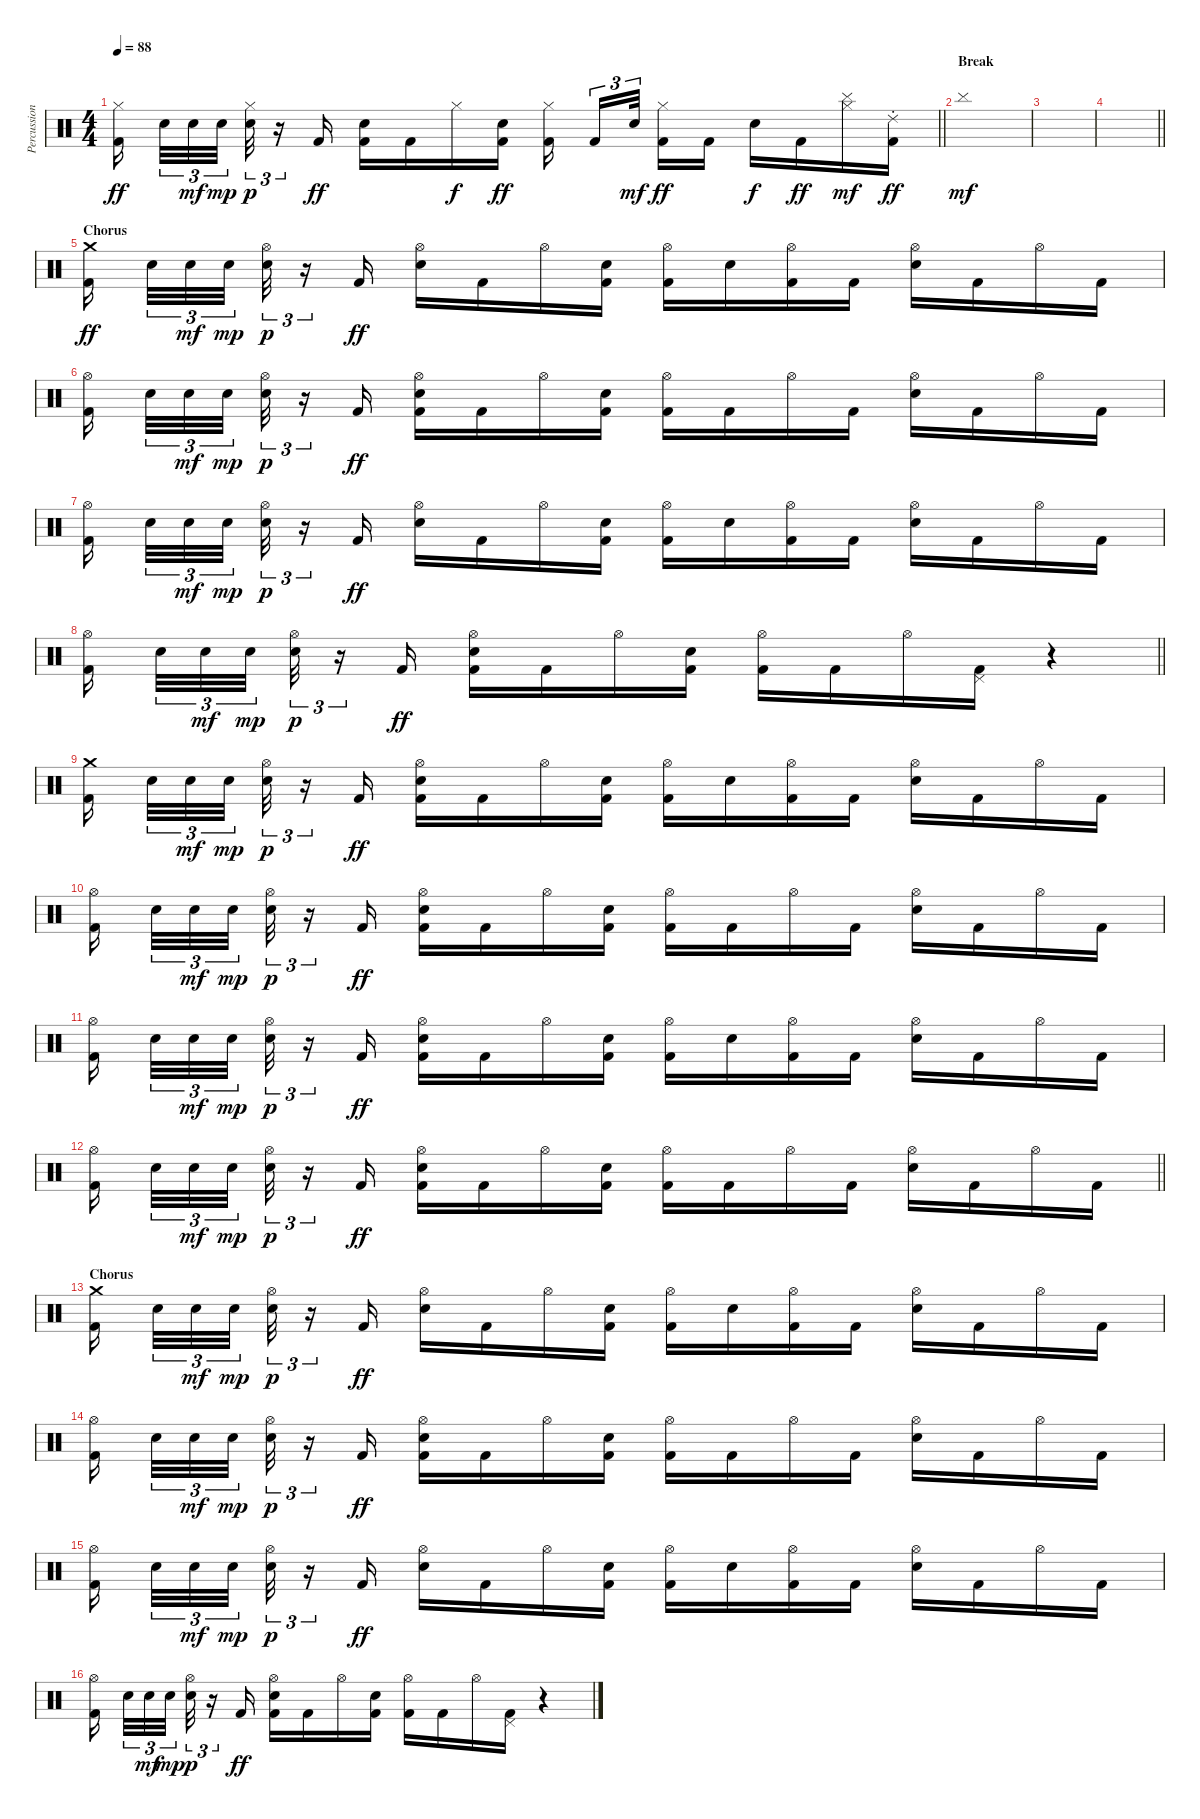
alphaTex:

\track ("Percussion" "Percussion") {instrument percussion}
\staff {score}
\articulation defaults
\ts (4 4)
\tempo 88
\clef neutral
\barLineRight lightlight
\ks c
("Hi-Hat (closed)" "Kick (hit) 2").16{dy ff beam splitsecondary} "Snare (hit) 2".32{tu (3 2)} "Snare (hit) 2".32{tu (3 2) dy mf} "Snare (hit) 2".32{tu (3 2) dy mp beam splitsecondary} ("Hi-Hat (closed)" "Snare (hit) 2").32{tu (3 2) dy p} r.16{tu (3 2)} "Kick (hit) 2".16{dy ff} ("Electric Snare (hit)" "Kick (hit) 2").16 "Kick (hit) 2".16 "Hi-Hat (closed)".16{dy f} ("Snare (hit) 2" "Kick (hit) 2").16{dy ff} ("Hi-Hat (closed)" "Kick (hit) 2").16{beam splitsecondary} "Kick (hit) 2".16{tu (3 2)} "Snare (hit) 2".32{tu (3 2) dy mf beam splitsecondary} ("Hi-Hat (closed)" "Kick (hit) 2").16{dy ff} "Kick (hit) 2".16 "Snare (hit) 2".16{dy f} "Kick (hit) 2".16{dy ff} ("Cymbal (hit)" "Hi-Hat (closed)").16{dy mf} ("Ride (choke) 2" "Kick (hit) 2").16{dy ff} |
\section ("" "Break")
"Cymbal (hit)".1{dy mf} |
|
\barLineRight lightlight
|
\section ("" "Chorus")
("Crash medium (hit)" "Kick (hit) 2").16{dy ff beam splitsecondary} "Snare (hit) 2".32{tu (3 2)} "Snare (hit) 2".32{tu (3 2) dy mf} "Snare (hit) 2".32{tu (3 2) dy mp beam splitsecondary} ("Hi-Hat (open)" "Snare (hit) 2").32{tu (3 2) dy p} r.16{tu (3 2)} "Kick (hit) 2".16{dy ff} ("Hi-Hat (open)" "Snare (hit) 2").16 "Kick (hit) 2".16 "Hi-Hat (open)".16 ("Electric Snare (hit)" "Kick (hit) 2").16 ("Hi-Hat (open)" "Kick (hit) 2").16 "Snare (hit) 2".16 ("Hi-Hat (open)" "Kick (hit) 2").16 "Kick (hit) 2".16 ("Hi-Hat (open)" "Electric Snare (hit)").16 "Kick (hit) 2".16 "Hi-Hat (open)".16 "Kick (hit) 2".16 |
("Hi-Hat (open)" "Kick (hit) 2").16{beam splitsecondary} "Snare (hit) 2".32{tu (3 2)} "Snare (hit) 2".32{tu (3 2) dy mf} "Snare (hit) 2".32{tu (3 2) dy mp beam splitsecondary} ("Hi-Hat (open)" "Snare (hit) 2").32{tu (3 2) dy p} r.16{tu (3 2)} "Kick (hit) 2".16{dy ff} ("Hi-Hat (open)" "Electric Snare (hit)" "Kick (hit) 2").16 "Kick (hit) 2".16 "Hi-Hat (open)".16 ("Snare (hit) 2" "Kick (hit) 2").16 ("Hi-Hat (open)" "Kick (hit) 2").16 "Kick (hit) 2".16 "Hi-Hat (open)".16 "Kick (hit) 2".16 ("Hi-Hat (open)" "Electric Snare (hit)").16 "Kick (hit) 2".16 "Hi-Hat (open)".16 "Kick (hit) 2".16 |
("Hi-Hat (open)" "Kick (hit) 2").16{beam splitsecondary} "Snare (hit) 2".32{tu (3 2)} "Snare (hit) 2".32{tu (3 2) dy mf} "Snare (hit) 2".32{tu (3 2) dy mp beam splitsecondary} ("Hi-Hat (open)" "Snare (hit) 2").32{tu (3 2) dy p} r.16{tu (3 2)} "Kick (hit) 2".16{dy ff} ("Hi-Hat (open)" "Snare (hit) 2").16 "Kick (hit) 2".16 "Hi-Hat (open)".16 ("Electric Snare (hit)" "Kick (hit) 2").16 ("Hi-Hat (open)" "Kick (hit) 2").16 "Snare (hit) 2".16 ("Hi-Hat (open)" "Kick (hit) 2").16 "Kick (hit) 2".16 ("Hi-Hat (open)" "Electric Snare (hit)").16 "Kick (hit) 2".16 "Hi-Hat (open)".16 "Kick (hit) 2".16 |
\barLineRight lightlight
("Hi-Hat (open)" "Kick (hit) 2").16{beam splitsecondary} "Snare (hit) 2".32{tu (3 2)} "Snare (hit) 2".32{tu (3 2) dy mf} "Snare (hit) 2".32{tu (3 2) dy mp beam splitsecondary} ("Hi-Hat (open)" "Snare (hit) 2").32{tu (3 2) dy p} r.16{tu (3 2)} "Kick (hit) 2".16{dy ff} ("Hi-Hat (open)" "Electric Snare (hit)" "Kick (hit) 2").16 "Kick (hit) 2".16 "Hi-Hat (open)".16 ("Snare (hit) 2" "Kick (hit) 2").16 ("Hi-Hat (open)" "Kick (hit) 2").16 "Kick (hit) 2".16 "Hi-Hat (open)".16 ("Pedal Hi-Hat (hit)" "Kick (hit) 2").16 r.4 |
("Crash medium (hit)" "Kick (hit) 2").16{beam splitsecondary} "Snare (hit) 2".32{tu (3 2)} "Snare (hit) 2".32{tu (3 2) dy mf} "Snare (hit) 2".32{tu (3 2) dy mp beam splitsecondary} ("Hi-Hat (open)" "Snare (hit) 2").32{tu (3 2) dy p} r.16{tu (3 2)} "Kick (hit) 2".16{dy ff} ("Hi-Hat (open)" "Snare (hit) 2" "Kick (hit) 2").16 "Kick (hit) 2".16 "Hi-Hat (open)".16 ("Electric Snare (hit)" "Kick (hit) 2").16 ("Hi-Hat (open)" "Kick (hit) 2").16 "Snare (hit) 2".16 ("Hi-Hat (open)" "Kick (hit) 2").16 "Kick (hit) 2".16 ("Hi-Hat (open)" "Electric Snare (hit)").16 "Kick (hit) 2".16 "Hi-Hat (open)".16 "Kick (hit) 2".16 |
("Hi-Hat (open)" "Kick (hit) 2").16{beam splitsecondary} "Snare (hit) 2".32{tu (3 2)} "Snare (hit) 2".32{tu (3 2) dy mf} "Snare (hit) 2".32{tu (3 2) dy mp beam splitsecondary} ("Hi-Hat (open)" "Snare (hit) 2").32{tu (3 2) dy p} r.16{tu (3 2)} "Kick (hit) 2".16{dy ff} ("Hi-Hat (open)" "Electric Snare (hit)" "Kick (hit) 2").16 "Kick (hit) 2".16 "Hi-Hat (open)".16 ("Snare (hit) 2" "Kick (hit) 2").16 ("Hi-Hat (open)" "Kick (hit) 2").16 "Kick (hit) 2".16 "Hi-Hat (open)".16 "Kick (hit) 2".16 ("Hi-Hat (open)" "Electric Snare (hit)").16 "Kick (hit) 2".16 "Hi-Hat (open)".16 "Kick (hit) 2".16 |
("Hi-Hat (open)" "Kick (hit) 2").16{beam splitsecondary} "Snare (hit) 2".32{tu (3 2)} "Snare (hit) 2".32{tu (3 2) dy mf} "Snare (hit) 2".32{tu (3 2) dy mp beam splitsecondary} ("Hi-Hat (open)" "Snare (hit) 2").32{tu (3 2) dy p} r.16{tu (3 2)} "Kick (hit) 2".16{dy ff} ("Hi-Hat (open)" "Snare (hit) 2" "Kick (hit) 2").16 "Kick (hit) 2".16 "Hi-Hat (open)".16 ("Electric Snare (hit)" "Kick (hit) 2").16 ("Hi-Hat (open)" "Kick (hit) 2").16 "Snare (hit) 2".16 ("Hi-Hat (open)" "Kick (hit) 2").16 "Kick (hit) 2".16 ("Hi-Hat (open)" "Electric Snare (hit)").16 "Kick (hit) 2".16 "Hi-Hat (open)".16 "Kick (hit) 2".16 |
\barLineRight lightlight
("Hi-Hat (open)" "Kick (hit) 2").16{beam splitsecondary} "Snare (hit) 2".32{tu (3 2)} "Snare (hit) 2".32{tu (3 2) dy mf} "Snare (hit) 2".32{tu (3 2) dy mp beam splitsecondary} ("Hi-Hat (open)" "Snare (hit) 2").32{tu (3 2) dy p} r.16{tu (3 2)} "Kick (hit) 2".16{dy ff} ("Hi-Hat (open)" "Electric Snare (hit)" "Kick (hit) 2").16 "Kick (hit) 2".16 "Hi-Hat (open)".16 ("Snare (hit) 2" "Kick (hit) 2").16 ("Hi-Hat (open)" "Kick (hit) 2").16 "Kick (hit) 2".16 "Hi-Hat (open)".16 "Kick (hit) 2".16 ("Hi-Hat (open)" "Electric Snare (hit)").16 "Kick (hit) 2".16 "Hi-Hat (open)".16 "Kick (hit) 2".16 |
\section ("" "Chorus")
("Crash medium (hit)" "Kick (hit) 2").16{beam splitsecondary} "Snare (hit) 2".32{tu (3 2)} "Snare (hit) 2".32{tu (3 2) dy mf} "Snare (hit) 2".32{tu (3 2) dy mp beam splitsecondary} ("Hi-Hat (open)" "Snare (hit) 2").32{tu (3 2) dy p} r.16{tu (3 2)} "Kick (hit) 2".16{dy ff} ("Hi-Hat (open)" "Snare (hit) 2").16 "Kick (hit) 2".16 "Hi-Hat (open)".16 ("Electric Snare (hit)" "Kick (hit) 2").16 ("Hi-Hat (open)" "Kick (hit) 2").16 "Snare (hit) 2".16 ("Hi-Hat (open)" "Kick (hit) 2").16 "Kick (hit) 2".16 ("Hi-Hat (open)" "Electric Snare (hit)").16 "Kick (hit) 2".16 "Hi-Hat (open)".16 "Kick (hit) 2".16 |
("Hi-Hat (open)" "Kick (hit) 2").16{beam splitsecondary} "Snare (hit) 2".32{tu (3 2)} "Snare (hit) 2".32{tu (3 2) dy mf} "Snare (hit) 2".32{tu (3 2) dy mp beam splitsecondary} ("Hi-Hat (open)" "Snare (hit) 2").32{tu (3 2) dy p} r.16{tu (3 2)} "Kick (hit) 2".16{dy ff} ("Hi-Hat (open)" "Electric Snare (hit)" "Kick (hit) 2").16 "Kick (hit) 2".16 "Hi-Hat (open)".16 ("Snare (hit) 2" "Kick (hit) 2").16 ("Hi-Hat (open)" "Kick (hit) 2").16 "Kick (hit) 2".16 "Hi-Hat (open)".16 "Kick (hit) 2".16 ("Hi-Hat (open)" "Electric Snare (hit)").16 "Kick (hit) 2".16 "Hi-Hat (open)".16 "Kick (hit) 2".16 |
("Hi-Hat (open)" "Kick (hit) 2").16{beam splitsecondary} "Snare (hit) 2".32{tu (3 2)} "Snare (hit) 2".32{tu (3 2) dy mf} "Snare (hit) 2".32{tu (3 2) dy mp beam splitsecondary} ("Hi-Hat (open)" "Snare (hit) 2").32{tu (3 2) dy p} r.16{tu (3 2)} "Kick (hit) 2".16{dy ff} ("Hi-Hat (open)" "Snare (hit) 2").16 "Kick (hit) 2".16 "Hi-Hat (open)".16 ("Electric Snare (hit)" "Kick (hit) 2").16 ("Hi-Hat (open)" "Kick (hit) 2").16 "Snare (hit) 2".16 ("Hi-Hat (open)" "Kick (hit) 2").16 "Kick (hit) 2".16 ("Hi-Hat (open)" "Electric Snare (hit)").16 "Kick (hit) 2".16 "Hi-Hat (open)".16 "Kick (hit) 2".16 |
("Hi-Hat (open)" "Kick (hit) 2").16{beam splitsecondary} "Snare (hit) 2".32{tu (3 2)} "Snare (hit) 2".32{tu (3 2) dy mf} "Snare (hit) 2".32{tu (3 2) dy mp beam splitsecondary} ("Hi-Hat (open)" "Snare (hit) 2").32{tu (3 2) dy p} r.16{tu (3 2)} "Kick (hit) 2".16{dy ff} ("Hi-Hat (open)" "Electric Snare (hit)" "Kick (hit) 2").16 "Kick (hit) 2".16 "Hi-Hat (open)".16 ("Snare (hit) 2" "Kick (hit) 2").16 ("Hi-Hat (open)" "Kick (hit) 2").16 "Kick (hit) 2".16 "Hi-Hat (open)".16 ("Pedal Hi-Hat (hit)" "Kick (hit) 2").16 r.4
